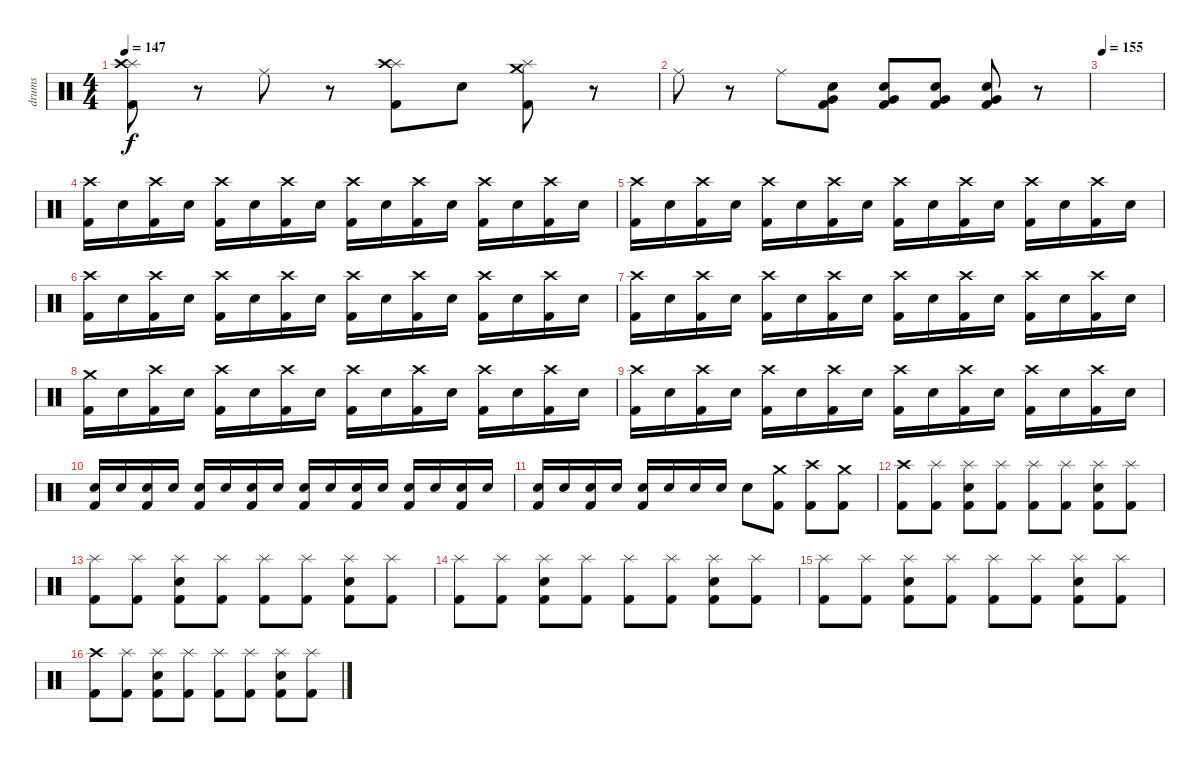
\track ("drums" "drums") {instrument percussion}
\staff {score}
\articulation defaults
\ts (4 4)
\tempo 147
\clef neutral
\ks c
("Splash (hit)" "Crash high (hit)" "Kick (hit) 2").8{dy f} r.8 "Ride (middle)".8 r.8 ("Splash (hit)" "Crash high (hit)" "Kick (hit) 2").8 "Snare (hit) 2".8 ("Splash (hit)" "Crash medium (hit)" "Kick (hit) 2").8 r.8 |
"Ride (middle)".8 r.8 "Ride (middle)".8 ("Snare (hit) 2" "Very Low Tom (hit)" "Kick (hit) 2").8 ("Snare (hit) 2" "Very Low Tom (hit)" "Kick (hit) 2").8 ("Snare (hit) 2" "Very Low Tom (hit)" "Kick (hit) 2").8 ("Snare (hit) 2" "Very Low Tom (hit)" "Kick (hit) 2").8 r.8 |
\tempo 155
|
("Crash high (hit)" "Kick (hit) 2").16 "Snare (hit) 2".16 ("Crash high (hit)" "Kick (hit) 2").16 "Snare (hit) 2".16 ("Crash high (hit)" "Kick (hit) 2").16 "Snare (hit) 2".16 ("Crash high (hit)" "Kick (hit) 2").16 "Snare (hit) 2".16 ("Crash high (hit)" "Kick (hit) 2").16 "Snare (hit) 2".16 ("Crash high (hit)" "Kick (hit) 2").16 "Snare (hit) 2".16 ("Crash high (hit)" "Kick (hit) 2").16 "Snare (hit) 2".16 ("Crash high (hit)" "Kick (hit) 2").16 "Snare (hit) 2".16 |
("Crash high (hit)" "Kick (hit) 2").16 "Snare (hit) 2".16 ("Crash high (hit)" "Kick (hit) 2").16 "Snare (hit) 2".16 ("Crash high (hit)" "Kick (hit) 2").16 "Snare (hit) 2".16 ("Crash high (hit)" "Kick (hit) 2").16 "Snare (hit) 2".16 ("Crash high (hit)" "Kick (hit) 2").16 "Snare (hit) 2".16 ("Crash high (hit)" "Kick (hit) 2").16 "Snare (hit) 2".16 ("Crash high (hit)" "Kick (hit) 2").16 "Snare (hit) 2".16 ("Crash high (hit)" "Kick (hit) 2").16 "Snare (hit) 2".16 |
("Crash high (hit)" "Kick (hit) 2").16 "Snare (hit) 2".16 ("Crash high (hit)" "Kick (hit) 2").16 "Snare (hit) 2".16 ("Crash high (hit)" "Kick (hit) 2").16 "Snare (hit) 2".16 ("Crash high (hit)" "Kick (hit) 2").16 "Snare (hit) 2".16 ("Crash high (hit)" "Kick (hit) 2").16 "Snare (hit) 2".16 ("Crash high (hit)" "Kick (hit) 2").16 "Snare (hit) 2".16 ("Crash high (hit)" "Kick (hit) 2").16 "Snare (hit) 2".16 ("Crash high (hit)" "Kick (hit) 2").16 "Snare (hit) 2".16 |
("Crash high (hit)" "Kick (hit) 2").16 "Snare (hit) 2".16 ("Crash high (hit)" "Kick (hit) 2").16 "Snare (hit) 2".16 ("Crash high (hit)" "Kick (hit) 2").16 "Snare (hit) 2".16 ("Crash high (hit)" "Kick (hit) 2").16 "Snare (hit) 2".16 ("Crash high (hit)" "Kick (hit) 2").16 "Snare (hit) 2".16 ("Crash high (hit)" "Kick (hit) 2").16 "Snare (hit) 2".16 ("Crash high (hit)" "Kick (hit) 2").16 "Snare (hit) 2".16 ("Crash high (hit)" "Kick (hit) 2").16 "Snare (hit) 2".16 |
("Crash medium (hit)" "Kick (hit) 2").16 "Snare (hit) 2".16 ("Crash high (hit)" "Kick (hit) 2").16 "Snare (hit) 2".16 ("Crash high (hit)" "Kick (hit) 2").16 "Snare (hit) 2".16 ("Crash high (hit)" "Kick (hit) 2").16 "Snare (hit) 2".16 ("Crash high (hit)" "Kick (hit) 2").16 "Snare (hit) 2".16 ("Crash high (hit)" "Kick (hit) 2").16 "Snare (hit) 2".16 ("Crash high (hit)" "Kick (hit) 2").16 "Snare (hit) 2".16 ("Crash high (hit)" "Kick (hit) 2").16 "Snare (hit) 2".16 |
("Crash high (hit)" "Kick (hit) 2").16 "Snare (hit) 2".16 ("Crash high (hit)" "Kick (hit) 2").16 "Snare (hit) 2".16 ("Crash high (hit)" "Kick (hit) 2").16 "Snare (hit) 2".16 ("Crash high (hit)" "Kick (hit) 2").16 "Snare (hit) 2".16 ("Crash high (hit)" "Kick (hit) 2").16 "Snare (hit) 2".16 ("Crash high (hit)" "Kick (hit) 2").16 "Snare (hit) 2".16 ("Crash high (hit)" "Kick (hit) 2").16 "Snare (hit) 2".16 ("Crash high (hit)" "Kick (hit) 2").16 "Snare (hit) 2".16 |
("Snare (hit) 2" "Kick (hit) 2").16 "Snare (hit) 2".16 ("Snare (hit) 2" "Kick (hit) 2").16 "Snare (hit) 2".16 ("Snare (hit) 2" "Kick (hit) 2").16 "Snare (hit) 2".16 ("Snare (hit) 2" "Kick (hit) 2").16 "Snare (hit) 2".16 ("Snare (hit) 2" "Kick (hit) 2").16 "Snare (hit) 2".16 ("Snare (hit) 2" "Kick (hit) 2").16 "Snare (hit) 2".16 ("Snare (hit) 2" "Kick (hit) 2").16 "Snare (hit) 2".16 ("Snare (hit) 2" "Kick (hit) 2").16 "Snare (hit) 2".16 |
("Snare (hit) 2" "Kick (hit) 2").16 "Snare (hit) 2".16 ("Snare (hit) 2" "Kick (hit) 2").16 "Snare (hit) 2".16 ("Snare (hit) 2" "Kick (hit) 2").16 "Snare (hit) 2".16 "Snare (hit) 2".16 "Snare (hit) 2".16 "Snare (hit) 2".8 ("Crash medium (hit)" "Kick (hit) 2").8 ("Crash high (hit)" "Kick (hit) 2").8 ("Crash medium (hit)" "Kick (hit) 2").8 |
("Crash high (hit)" "Kick (hit) 2").8 ("Splash (hit)" "Kick (hit) 2").8 ("Splash (hit)" "Snare (hit) 2" "Kick (hit) 2").8 ("Splash (hit)" "Kick (hit) 2").8 ("Splash (hit)" "Kick (hit) 2").8 ("Splash (hit)" "Kick (hit) 2").8 ("Splash (hit)" "Snare (hit) 2" "Kick (hit) 2").8 ("Splash (hit)" "Kick (hit) 2").8 |
("Splash (hit)" "Kick (hit) 2").8 ("Splash (hit)" "Kick (hit) 2").8 ("Splash (hit)" "Snare (hit) 2" "Kick (hit) 2").8 ("Splash (hit)" "Kick (hit) 2").8 ("Splash (hit)" "Kick (hit) 2").8 ("Splash (hit)" "Kick (hit) 2").8 ("Splash (hit)" "Snare (hit) 2" "Kick (hit) 2").8 ("Splash (hit)" "Kick (hit) 2").8 |
("Splash (hit)" "Kick (hit) 2").8 ("Splash (hit)" "Kick (hit) 2").8 ("Splash (hit)" "Snare (hit) 2" "Kick (hit) 2").8 ("Splash (hit)" "Kick (hit) 2").8 ("Splash (hit)" "Kick (hit) 2").8 ("Splash (hit)" "Kick (hit) 2").8 ("Splash (hit)" "Snare (hit) 2" "Kick (hit) 2").8 ("Splash (hit)" "Kick (hit) 2").8 |
("Splash (hit)" "Kick (hit) 2").8 ("Splash (hit)" "Kick (hit) 2").8 ("Splash (hit)" "Snare (hit) 2" "Kick (hit) 2").8 ("Splash (hit)" "Kick (hit) 2").8 ("Splash (hit)" "Kick (hit) 2").8 ("Splash (hit)" "Kick (hit) 2").8 ("Splash (hit)" "Snare (hit) 2" "Kick (hit) 2").8 ("Splash (hit)" "Kick (hit) 2").8 |
("Crash high (hit)" "Kick (hit) 2").8 ("Splash (hit)" "Kick (hit) 2").8 ("Splash (hit)" "Snare (hit) 2" "Kick (hit) 2").8 ("Splash (hit)" "Kick (hit) 2").8 ("Splash (hit)" "Kick (hit) 2").8 ("Splash (hit)" "Kick (hit) 2").8 ("Splash (hit)" "Snare (hit) 2" "Kick (hit) 2").8 ("Splash (hit)" "Kick (hit) 2").8
